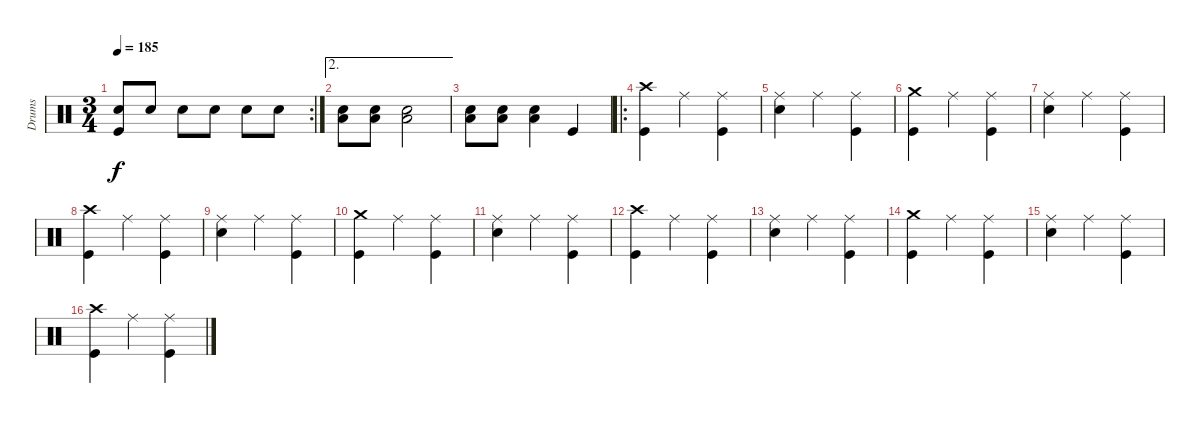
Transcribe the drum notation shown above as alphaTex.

\track ("Drums" "Drums") {instrument percussion}
\staff {score}
\articulation defaults
\rc 2
\ts (3 4)
\tempo 185
\clef neutral
\ks c
("Snare (hit) 2" "Kick (hit)").8{dy f} "Snare (hit) 2".8 "Snare (hit) 2".8 "Snare (hit) 2".8 "Snare (hit) 2".8 "Snare (hit) 2".8 |
\ae 2
("Low Floor Tom (hit)" "Snare (hit) 2").8 ("Low Floor Tom (hit)" "Snare (hit) 2").8 ("Low Floor Tom (hit)" "Snare (hit) 2").2 |
("Low Floor Tom (hit)" "Snare (hit) 2").8 ("Low Floor Tom (hit)" "Snare (hit) 2").8 ("Low Floor Tom (hit)" "Snare (hit) 2").4 "Kick (hit)".4 |
\ro
("Crash high (hit)" "Kick (hit)").4 "Ride (middle)".4 ("Ride (middle)" "Kick (hit)").4 |
("Ride (middle)" "Snare (hit) 2").4 "Ride (middle)".4 ("Ride (middle)" "Kick (hit)").4 |
("Crash medium (hit)" "Kick (hit)").4 "Ride (middle)".4 ("Ride (middle)" "Kick (hit)").4 |
("Ride (middle)" "Snare (hit) 2").4 "Ride (middle)".4 ("Ride (middle)" "Kick (hit)").4 |
("Crash high (hit)" "Kick (hit)").4 "Ride (middle)".4 ("Ride (middle)" "Kick (hit)").4 |
("Ride (middle)" "Snare (hit) 2").4 "Ride (middle)".4 ("Ride (middle)" "Kick (hit)").4 |
("Crash medium (hit)" "Kick (hit)").4 "Ride (middle)".4 ("Ride (middle)" "Kick (hit)").4 |
("Ride (middle)" "Snare (hit) 2").4 "Ride (middle)".4 ("Ride (middle)" "Kick (hit)").4 |
("Crash high (hit)" "Kick (hit)").4 "Ride (middle)".4 ("Ride (middle)" "Kick (hit)").4 |
("Ride (middle)" "Snare (hit) 2").4 "Ride (middle)".4 ("Ride (middle)" "Kick (hit)").4 |
("Crash medium (hit)" "Kick (hit)").4 "Ride (middle)".4 ("Ride (middle)" "Kick (hit)").4 |
("Ride (middle)" "Snare (hit) 2").4 "Ride (middle)".4 ("Ride (middle)" "Kick (hit)").4 |
("Crash high (hit)" "Kick (hit)").4 "Ride (middle)".4 ("Ride (middle)" "Kick (hit)").4
